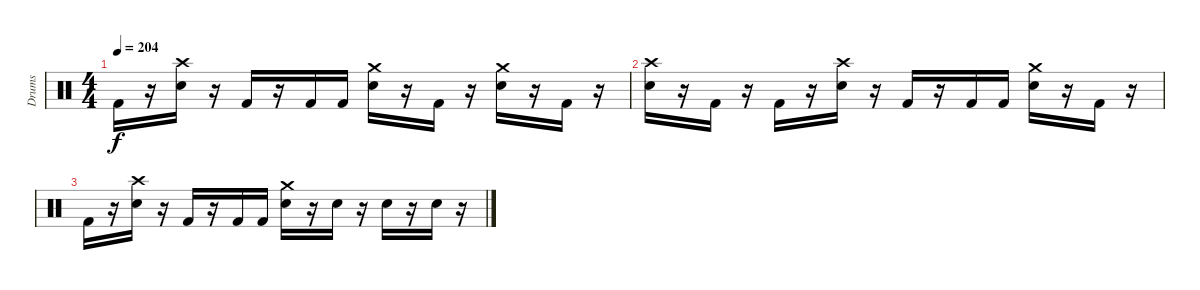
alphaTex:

\track ("Drums" "Drums") {instrument percussion}
\staff {score}
\articulation defaults
\ts (4 4)
\tempo 204
\clef neutral
\ks c "Kick (hit) 2".16{dy f}
r.16 ("Crash high (hit)" "Snare (hit) 2").16 r.16 "Kick (hit) 2".16 r.16 "Kick (hit) 2".16 "Kick (hit) 2".16 ("Crash medium (hit)" "Snare (hit) 2").16 r.16 "Kick (hit) 2".16 r.16 ("Crash medium (hit)" "Snare (hit) 2").16 r.16 "Kick (hit) 2".16 r.16 |
("Crash high (hit)" "Snare (hit) 2").16 r.16 "Kick (hit) 2".16 r.16 "Kick (hit) 2".16 r.16 ("Crash high (hit)" "Snare (hit) 2").16 r.16 "Kick (hit) 2".16 r.16 "Kick (hit) 2".16 "Kick (hit) 2".16 ("Crash medium (hit)" "Snare (hit) 2").16 r.16 "Kick (hit) 2".16 r.16 |
"Kick (hit) 2".16 r.16 ("Crash high (hit)" "Snare (hit) 2").16 r.16 "Kick (hit) 2".16 r.16 "Kick (hit) 2".16 "Kick (hit) 2".16 ("Crash medium (hit)" "Snare (hit) 2").16 r.16 "Snare (hit) 2".16 r.16 "Snare (hit) 2".16 r.16 "Snare (hit) 2".16 r.16
